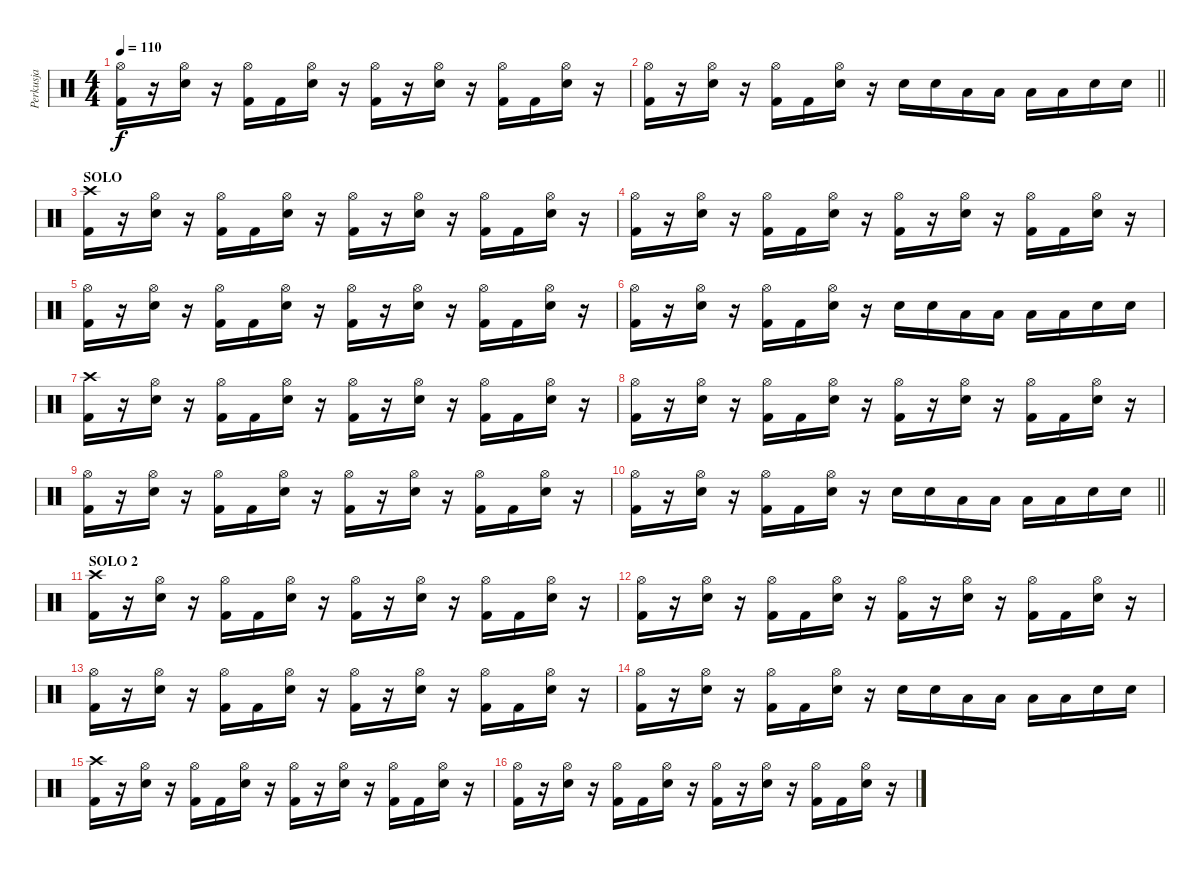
\track ("Perkusja" "Perkusja") {instrument percussion}
\staff {score}
\articulation defaults
\ts (4 4)
\tempo 110
\clef neutral
\ks c
("Hi-Hat (open)" "Kick (hit) 2").16{dy f} r.16 ("Hi-Hat (open)" "Snare (hit) 2").16 r.16 ("Hi-Hat (open)" "Kick (hit) 2").16 "Kick (hit) 2".16 ("Hi-Hat (open)" "Snare (hit) 2").16 r.16 ("Hi-Hat (open)" "Kick (hit) 2").16 r.16 ("Hi-Hat (open)" "Snare (hit) 2").16 r.16 ("Hi-Hat (open)" "Kick (hit) 2").16 "Kick (hit) 2".16 ("Hi-Hat (open)" "Snare (hit) 2").16 r.16 |
\barLineRight lightlight
("Hi-Hat (open)" "Kick (hit) 2").16 r.16 ("Hi-Hat (open)" "Snare (hit) 2").16 r.16 ("Hi-Hat (open)" "Kick (hit) 2").16 "Kick (hit) 2".16 ("Hi-Hat (open)" "Snare (hit) 2").16 r.16 "Snare (hit) 2".16 "Snare (hit) 2".16 "Low Tom (hit)".16 "Low Tom (hit)".16 "Low Tom (hit)".16 "Low Tom (hit)".16 "Snare (hit) 2".16 "Snare (hit) 2".16 |
\section ("" "SOLO")
("Crash high (hit)" "Kick (hit) 2").16 r.16 ("Hi-Hat (open)" "Snare (hit) 2").16 r.16 ("Hi-Hat (open)" "Kick (hit) 2").16 "Kick (hit) 2".16 ("Hi-Hat (open)" "Snare (hit) 2").16 r.16 ("Hi-Hat (open)" "Kick (hit) 2").16 r.16 ("Hi-Hat (open)" "Snare (hit) 2").16 r.16 ("Hi-Hat (open)" "Kick (hit) 2").16 "Kick (hit) 2".16 ("Hi-Hat (open)" "Snare (hit) 2").16 r.16 |
("Hi-Hat (open)" "Kick (hit) 2").16 r.16 ("Hi-Hat (open)" "Snare (hit) 2").16 r.16 ("Hi-Hat (open)" "Kick (hit) 2").16 "Kick (hit) 2".16 ("Hi-Hat (open)" "Snare (hit) 2").16 r.16 ("Hi-Hat (open)" "Kick (hit) 2").16 r.16 ("Hi-Hat (open)" "Snare (hit) 2").16 r.16 ("Hi-Hat (open)" "Kick (hit) 2").16 "Kick (hit) 2".16 ("Hi-Hat (open)" "Snare (hit) 2").16 r.16 |
("Hi-Hat (open)" "Kick (hit) 2").16 r.16 ("Hi-Hat (open)" "Snare (hit) 2").16 r.16 ("Hi-Hat (open)" "Kick (hit) 2").16 "Kick (hit) 2".16 ("Hi-Hat (open)" "Snare (hit) 2").16 r.16 ("Hi-Hat (open)" "Kick (hit) 2").16 r.16 ("Hi-Hat (open)" "Snare (hit) 2").16 r.16 ("Hi-Hat (open)" "Kick (hit) 2").16 "Kick (hit) 2".16 ("Hi-Hat (open)" "Snare (hit) 2").16 r.16 |
("Hi-Hat (open)" "Kick (hit) 2").16 r.16 ("Hi-Hat (open)" "Snare (hit) 2").16 r.16 ("Hi-Hat (open)" "Kick (hit) 2").16 "Kick (hit) 2".16 ("Hi-Hat (open)" "Snare (hit) 2").16 r.16 "Snare (hit) 2".16 "Snare (hit) 2".16 "Low Tom (hit)".16 "Low Tom (hit)".16 "Low Tom (hit)".16 "Low Tom (hit)".16 "Snare (hit) 2".16 "Snare (hit) 2".16 |
("Crash high (hit)" "Kick (hit) 2").16 r.16 ("Hi-Hat (open)" "Snare (hit) 2").16 r.16 ("Hi-Hat (open)" "Kick (hit) 2").16 "Kick (hit) 2".16 ("Hi-Hat (open)" "Snare (hit) 2").16 r.16 ("Hi-Hat (open)" "Kick (hit) 2").16 r.16 ("Hi-Hat (open)" "Snare (hit) 2").16 r.16 ("Hi-Hat (open)" "Kick (hit) 2").16 "Kick (hit) 2".16 ("Hi-Hat (open)" "Snare (hit) 2").16 r.16 |
("Hi-Hat (open)" "Kick (hit) 2").16 r.16 ("Hi-Hat (open)" "Snare (hit) 2").16 r.16 ("Hi-Hat (open)" "Kick (hit) 2").16 "Kick (hit) 2".16 ("Hi-Hat (open)" "Snare (hit) 2").16 r.16 ("Hi-Hat (open)" "Kick (hit) 2").16 r.16 ("Hi-Hat (open)" "Snare (hit) 2").16 r.16 ("Hi-Hat (open)" "Kick (hit) 2").16 "Kick (hit) 2".16 ("Hi-Hat (open)" "Snare (hit) 2").16 r.16 |
("Hi-Hat (open)" "Kick (hit) 2").16 r.16 ("Hi-Hat (open)" "Snare (hit) 2").16 r.16 ("Hi-Hat (open)" "Kick (hit) 2").16 "Kick (hit) 2".16 ("Hi-Hat (open)" "Snare (hit) 2").16 r.16 ("Hi-Hat (open)" "Kick (hit) 2").16 r.16 ("Hi-Hat (open)" "Snare (hit) 2").16 r.16 ("Hi-Hat (open)" "Kick (hit) 2").16 "Kick (hit) 2".16 ("Hi-Hat (open)" "Snare (hit) 2").16 r.16 |
\barLineRight lightlight
("Hi-Hat (open)" "Kick (hit) 2").16 r.16 ("Hi-Hat (open)" "Snare (hit) 2").16 r.16 ("Hi-Hat (open)" "Kick (hit) 2").16 "Kick (hit) 2".16 ("Hi-Hat (open)" "Snare (hit) 2").16 r.16 "Snare (hit) 2".16 "Snare (hit) 2".16 "Low Tom (hit)".16 "Low Tom (hit)".16 "Low Tom (hit)".16 "Low Tom (hit)".16 "Snare (hit) 2".16 "Snare (hit) 2".16 |
\section ("" "SOLO 2")
("Crash high (hit)" "Kick (hit) 2").16 r.16 ("Hi-Hat (open)" "Snare (hit) 2").16 r.16 ("Hi-Hat (open)" "Kick (hit) 2").16 "Kick (hit) 2".16 ("Hi-Hat (open)" "Snare (hit) 2").16 r.16 ("Hi-Hat (open)" "Kick (hit) 2").16 r.16 ("Hi-Hat (open)" "Snare (hit) 2").16 r.16 ("Hi-Hat (open)" "Kick (hit) 2").16 "Kick (hit) 2".16 ("Hi-Hat (open)" "Snare (hit) 2").16 r.16 |
("Hi-Hat (open)" "Kick (hit) 2").16 r.16 ("Hi-Hat (open)" "Snare (hit) 2").16 r.16 ("Hi-Hat (open)" "Kick (hit) 2").16 "Kick (hit) 2".16 ("Hi-Hat (open)" "Snare (hit) 2").16 r.16 ("Hi-Hat (open)" "Kick (hit) 2").16 r.16 ("Hi-Hat (open)" "Snare (hit) 2").16 r.16 ("Hi-Hat (open)" "Kick (hit) 2").16 "Kick (hit) 2".16 ("Hi-Hat (open)" "Snare (hit) 2").16 r.16 |
("Hi-Hat (open)" "Kick (hit) 2").16 r.16 ("Hi-Hat (open)" "Snare (hit) 2").16 r.16 ("Hi-Hat (open)" "Kick (hit) 2").16 "Kick (hit) 2".16 ("Hi-Hat (open)" "Snare (hit) 2").16 r.16 ("Hi-Hat (open)" "Kick (hit) 2").16 r.16 ("Hi-Hat (open)" "Snare (hit) 2").16 r.16 ("Hi-Hat (open)" "Kick (hit) 2").16 "Kick (hit) 2".16 ("Hi-Hat (open)" "Snare (hit) 2").16 r.16 |
("Hi-Hat (open)" "Kick (hit) 2").16 r.16 ("Hi-Hat (open)" "Snare (hit) 2").16 r.16 ("Hi-Hat (open)" "Kick (hit) 2").16 "Kick (hit) 2".16 ("Hi-Hat (open)" "Snare (hit) 2").16 r.16 "Snare (hit) 2".16 "Snare (hit) 2".16 "Low Tom (hit)".16 "Low Tom (hit)".16 "Low Tom (hit)".16 "Low Tom (hit)".16 "Snare (hit) 2".16 "Snare (hit) 2".16 |
("Crash high (hit)" "Kick (hit) 2").16 r.16 ("Hi-Hat (open)" "Snare (hit) 2").16 r.16 ("Hi-Hat (open)" "Kick (hit) 2").16 "Kick (hit) 2".16 ("Hi-Hat (open)" "Snare (hit) 2").16 r.16 ("Hi-Hat (open)" "Kick (hit) 2").16 r.16 ("Hi-Hat (open)" "Snare (hit) 2").16 r.16 ("Hi-Hat (open)" "Kick (hit) 2").16 "Kick (hit) 2".16 ("Hi-Hat (open)" "Snare (hit) 2").16 r.16 |
("Hi-Hat (open)" "Kick (hit) 2").16 r.16 ("Hi-Hat (open)" "Snare (hit) 2").16 r.16 ("Hi-Hat (open)" "Kick (hit) 2").16 "Kick (hit) 2".16 ("Hi-Hat (open)" "Snare (hit) 2").16 r.16 ("Hi-Hat (open)" "Kick (hit) 2").16 r.16 ("Hi-Hat (open)" "Snare (hit) 2").16 r.16 ("Hi-Hat (open)" "Kick (hit) 2").16 "Kick (hit) 2".16 ("Hi-Hat (open)" "Snare (hit) 2").16 r.16
